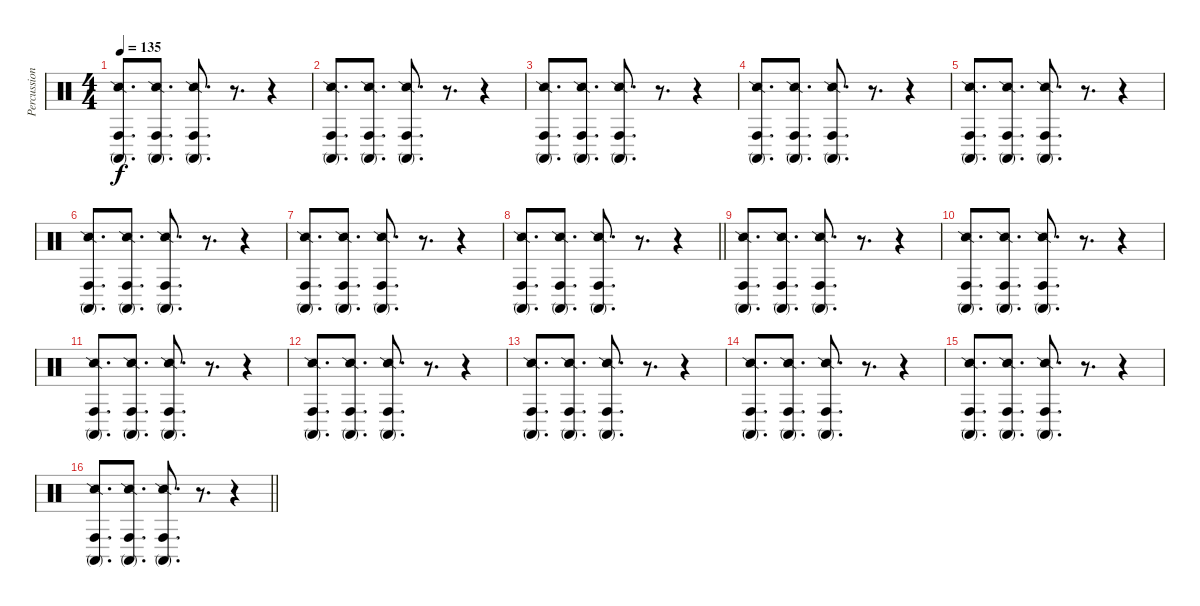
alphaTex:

\track ("Percussion FX" "Percussion") {instrument percussion}
\staff {score}
\articulation defaults
\ts (4 4)
\tempo 135
\clef neutral
\ks c
("Snare (side stick) 2" "Conga high (mute)" "Conga high (hit)").8{d dy f} ("Snare (side stick) 2" "Conga high (mute)" "Conga high (hit)").8{d} ("Snare (side stick) 2" "Conga high (mute)" "Conga high (hit)").8{d} r.8{d} r.4 |
("Snare (side stick) 2" "Conga high (mute)" "Conga high (hit)").8{d} ("Snare (side stick) 2" "Conga high (mute)" "Conga high (hit)").8{d} ("Snare (side stick) 2" "Conga high (mute)" "Conga high (hit)").8{d} r.8{d} r.4 |
("Snare (side stick) 2" "Conga high (mute)" "Conga high (hit)").8{d} ("Snare (side stick) 2" "Conga high (mute)" "Conga high (hit)").8{d} ("Snare (side stick) 2" "Conga high (mute)" "Conga high (hit)").8{d} r.8{d} r.4 |
("Snare (side stick) 2" "Conga high (mute)" "Conga high (hit)").8{d} ("Snare (side stick) 2" "Conga high (mute)" "Conga high (hit)").8{d} ("Snare (side stick) 2" "Conga high (mute)" "Conga high (hit)").8{d} r.8{d} r.4 |
("Snare (side stick) 2" "Conga high (mute)" "Conga high (hit)").8{d} ("Snare (side stick) 2" "Conga high (mute)" "Conga high (hit)").8{d} ("Snare (side stick) 2" "Conga high (mute)" "Conga high (hit)").8{d} r.8{d} r.4 |
("Snare (side stick) 2" "Conga high (mute)" "Conga high (hit)").8{d} ("Snare (side stick) 2" "Conga high (mute)" "Conga high (hit)").8{d} ("Snare (side stick) 2" "Conga high (mute)" "Conga high (hit)").8{d} r.8{d} r.4 |
("Snare (side stick) 2" "Conga high (mute)" "Conga high (hit)").8{d} ("Snare (side stick) 2" "Conga high (mute)" "Conga high (hit)").8{d} ("Snare (side stick) 2" "Conga high (mute)" "Conga high (hit)").8{d} r.8{d} r.4 |
\barLineRight lightlight
("Snare (side stick) 2" "Conga high (mute)" "Conga high (hit)").8{d} ("Snare (side stick) 2" "Conga high (mute)" "Conga high (hit)").8{d} ("Snare (side stick) 2" "Conga high (mute)" "Conga high (hit)").8{d} r.8{d} r.4 |
("Snare (side stick) 2" "Conga high (mute)" "Conga high (hit)").8{d} ("Snare (side stick) 2" "Conga high (mute)" "Conga high (hit)").8{d} ("Snare (side stick) 2" "Conga high (mute)" "Conga high (hit)").8{d} r.8{d} r.4 |
("Snare (side stick) 2" "Conga high (mute)" "Conga high (hit)").8{d} ("Snare (side stick) 2" "Conga high (mute)" "Conga high (hit)").8{d} ("Snare (side stick) 2" "Conga high (mute)" "Conga high (hit)").8{d} r.8{d} r.4 |
("Snare (side stick) 2" "Conga high (mute)" "Conga high (hit)").8{d} ("Snare (side stick) 2" "Conga high (mute)" "Conga high (hit)").8{d} ("Snare (side stick) 2" "Conga high (mute)" "Conga high (hit)").8{d} r.8{d} r.4 |
("Snare (side stick) 2" "Conga high (mute)" "Conga high (hit)").8{d} ("Snare (side stick) 2" "Conga high (mute)" "Conga high (hit)").8{d} ("Snare (side stick) 2" "Conga high (mute)" "Conga high (hit)").8{d} r.8{d} r.4 |
("Snare (side stick) 2" "Conga high (mute)" "Conga high (hit)").8{d} ("Snare (side stick) 2" "Conga high (mute)" "Conga high (hit)").8{d} ("Snare (side stick) 2" "Conga high (mute)" "Conga high (hit)").8{d} r.8{d} r.4 |
("Snare (side stick) 2" "Conga high (mute)" "Conga high (hit)").8{d} ("Snare (side stick) 2" "Conga high (mute)" "Conga high (hit)").8{d} ("Snare (side stick) 2" "Conga high (mute)" "Conga high (hit)").8{d} r.8{d} r.4 |
("Snare (side stick) 2" "Conga high (mute)" "Conga high (hit)").8{d} ("Snare (side stick) 2" "Conga high (mute)" "Conga high (hit)").8{d} ("Snare (side stick) 2" "Conga high (mute)" "Conga high (hit)").8{d} r.8{d} r.4 |
\barLineRight lightlight
("Snare (side stick) 2" "Conga high (mute)" "Conga high (hit)").8{d} ("Snare (side stick) 2" "Conga high (mute)" "Conga high (hit)").8{d} ("Snare (side stick) 2" "Conga high (mute)" "Conga high (hit)").8{d} r.8{d} r.4
